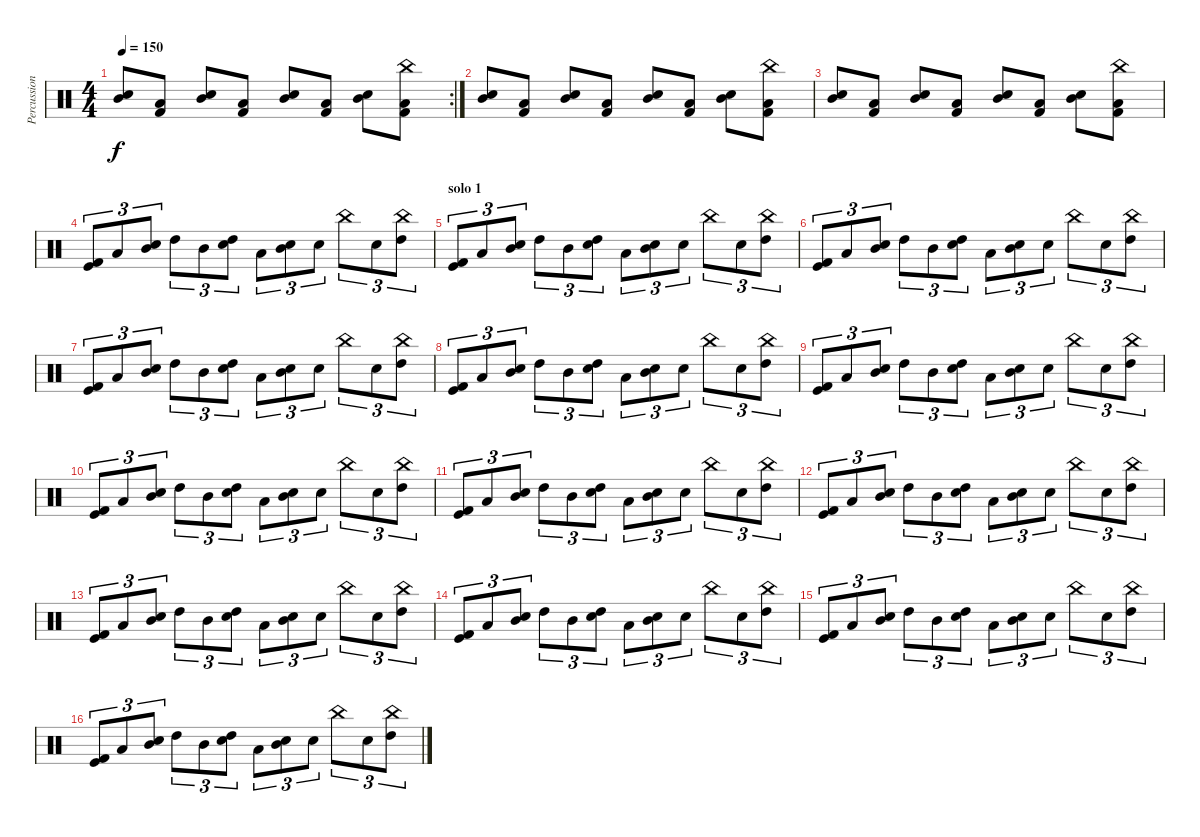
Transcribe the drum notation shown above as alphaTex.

\track ("Percussion" "Percussion") {instrument percussion}
\staff {score}
\articulation defaults
\rc 2
\ts (4 4)
\tempo 150
\clef neutral
\ks c
("Snare (hit) 2" "Mid Tom (hit)").8{dy f} ("Low Tom (hit)" "Kick (hit) 2").8 ("Snare (hit) 2" "Mid Tom (hit)").8 ("Low Tom (hit)" "Kick (hit) 2").8 ("Snare (hit) 2" "Mid Tom (hit)").8 ("Low Tom (hit)" "Kick (hit) 2").8 ("Snare (hit) 2" "Mid Tom (hit)").8 ("China (hit)" "Low Tom (hit)" "Kick (hit) 2").8 |
("Snare (hit) 2" "Mid Tom (hit)").8 ("Low Tom (hit)" "Kick (hit) 2").8 ("Snare (hit) 2" "Mid Tom (hit)").8 ("Low Tom (hit)" "Kick (hit) 2").8 ("Snare (hit) 2" "Mid Tom (hit)").8 ("Low Tom (hit)" "Kick (hit) 2").8 ("Snare (hit) 2" "Mid Tom (hit)").8 ("China (hit)" "Low Tom (hit)" "Kick (hit) 2").8 |
("Snare (hit) 2" "Mid Tom (hit)").8 ("Low Tom (hit)" "Kick (hit) 2").8 ("Snare (hit) 2" "Mid Tom (hit)").8 ("Low Tom (hit)" "Kick (hit) 2").8 ("Snare (hit) 2" "Mid Tom (hit)").8 ("Low Tom (hit)" "Kick (hit) 2").8 ("Snare (hit) 2" "Mid Tom (hit)").8 ("China (hit)" "Low Tom (hit)" "Kick (hit) 2").8 |
("Kick (hit) 2" "Kick (hit)").8{tu (3 2)} "Low Tom (hit)".8{tu (3 2)} ("Mid Tom (hit)" "Snare (hit) 2").8{tu (3 2)} "High Tom (hit)".8{tu (3 2)} "Mid Tom (hit)".8{tu (3 2)} ("High Tom (hit)" "Snare (hit) 2").8{tu (3 2)} "Low Tom (hit)".8{tu (3 2)} ("Mid Tom (hit)" "Snare (hit) 2").8{tu (3 2)} "Snare (hit) 2".8{tu (3 2)} "China (hit)".8{tu (3 2)} "Snare (hit) 2".8{tu (3 2)} ("High Tom (hit)" "China (hit)").8{tu (3 2)} |
\section ("" "solo 1")
("Kick (hit) 2" "Kick (hit)").8{tu (3 2)} "Low Tom (hit)".8{tu (3 2)} ("Mid Tom (hit)" "Snare (hit) 2").8{tu (3 2)} "High Tom (hit)".8{tu (3 2)} "Mid Tom (hit)".8{tu (3 2)} ("High Tom (hit)" "Snare (hit) 2").8{tu (3 2)} "Low Tom (hit)".8{tu (3 2)} ("Mid Tom (hit)" "Snare (hit) 2").8{tu (3 2)} "Snare (hit) 2".8{tu (3 2)} "China (hit)".8{tu (3 2)} "Snare (hit) 2".8{tu (3 2)} ("High Tom (hit)" "China (hit)").8{tu (3 2)} |
("Kick (hit) 2" "Kick (hit)").8{tu (3 2)} "Low Tom (hit)".8{tu (3 2)} ("Mid Tom (hit)" "Snare (hit) 2").8{tu (3 2)} "High Tom (hit)".8{tu (3 2)} "Mid Tom (hit)".8{tu (3 2)} ("High Tom (hit)" "Snare (hit) 2").8{tu (3 2)} "Low Tom (hit)".8{tu (3 2)} ("Mid Tom (hit)" "Snare (hit) 2").8{tu (3 2)} "Snare (hit) 2".8{tu (3 2)} "China (hit)".8{tu (3 2)} "Snare (hit) 2".8{tu (3 2)} ("High Tom (hit)" "China (hit)").8{tu (3 2)} |
("Kick (hit) 2" "Kick (hit)").8{tu (3 2)} "Low Tom (hit)".8{tu (3 2)} ("Mid Tom (hit)" "Snare (hit) 2").8{tu (3 2)} "High Tom (hit)".8{tu (3 2)} "Mid Tom (hit)".8{tu (3 2)} ("High Tom (hit)" "Snare (hit) 2").8{tu (3 2)} "Low Tom (hit)".8{tu (3 2)} ("Mid Tom (hit)" "Snare (hit) 2").8{tu (3 2)} "Snare (hit) 2".8{tu (3 2)} "China (hit)".8{tu (3 2)} "Snare (hit) 2".8{tu (3 2)} ("High Tom (hit)" "China (hit)").8{tu (3 2)} |
("Kick (hit) 2" "Kick (hit)").8{tu (3 2)} "Low Tom (hit)".8{tu (3 2)} ("Mid Tom (hit)" "Snare (hit) 2").8{tu (3 2)} "High Tom (hit)".8{tu (3 2)} "Mid Tom (hit)".8{tu (3 2)} ("High Tom (hit)" "Snare (hit) 2").8{tu (3 2)} "Low Tom (hit)".8{tu (3 2)} ("Mid Tom (hit)" "Snare (hit) 2").8{tu (3 2)} "Snare (hit) 2".8{tu (3 2)} "China (hit)".8{tu (3 2)} "Snare (hit) 2".8{tu (3 2)} ("High Tom (hit)" "China (hit)").8{tu (3 2)} |
("Kick (hit) 2" "Kick (hit)").8{tu (3 2)} "Low Tom (hit)".8{tu (3 2)} ("Mid Tom (hit)" "Snare (hit) 2").8{tu (3 2)} "High Tom (hit)".8{tu (3 2)} "Mid Tom (hit)".8{tu (3 2)} ("High Tom (hit)" "Snare (hit) 2").8{tu (3 2)} "Low Tom (hit)".8{tu (3 2)} ("Mid Tom (hit)" "Snare (hit) 2").8{tu (3 2)} "Snare (hit) 2".8{tu (3 2)} "China (hit)".8{tu (3 2)} "Snare (hit) 2".8{tu (3 2)} ("High Tom (hit)" "China (hit)").8{tu (3 2)} |
("Kick (hit) 2" "Kick (hit)").8{tu (3 2)} "Low Tom (hit)".8{tu (3 2)} ("Mid Tom (hit)" "Snare (hit) 2").8{tu (3 2)} "High Tom (hit)".8{tu (3 2)} "Mid Tom (hit)".8{tu (3 2)} ("High Tom (hit)" "Snare (hit) 2").8{tu (3 2)} "Low Tom (hit)".8{tu (3 2)} ("Mid Tom (hit)" "Snare (hit) 2").8{tu (3 2)} "Snare (hit) 2".8{tu (3 2)} "China (hit)".8{tu (3 2)} "Snare (hit) 2".8{tu (3 2)} ("High Tom (hit)" "China (hit)").8{tu (3 2)} |
("Kick (hit) 2" "Kick (hit)").8{tu (3 2)} "Low Tom (hit)".8{tu (3 2)} ("Mid Tom (hit)" "Snare (hit) 2").8{tu (3 2)} "High Tom (hit)".8{tu (3 2)} "Mid Tom (hit)".8{tu (3 2)} ("High Tom (hit)" "Snare (hit) 2").8{tu (3 2)} "Low Tom (hit)".8{tu (3 2)} ("Mid Tom (hit)" "Snare (hit) 2").8{tu (3 2)} "Snare (hit) 2".8{tu (3 2)} "China (hit)".8{tu (3 2)} "Snare (hit) 2".8{tu (3 2)} ("High Tom (hit)" "China (hit)").8{tu (3 2)} |
("Kick (hit) 2" "Kick (hit)").8{tu (3 2)} "Low Tom (hit)".8{tu (3 2)} ("Mid Tom (hit)" "Snare (hit) 2").8{tu (3 2)} "High Tom (hit)".8{tu (3 2)} "Mid Tom (hit)".8{tu (3 2)} ("High Tom (hit)" "Snare (hit) 2").8{tu (3 2)} "Low Tom (hit)".8{tu (3 2)} ("Mid Tom (hit)" "Snare (hit) 2").8{tu (3 2)} "Snare (hit) 2".8{tu (3 2)} "China (hit)".8{tu (3 2)} "Snare (hit) 2".8{tu (3 2)} ("High Tom (hit)" "China (hit)").8{tu (3 2)} |
("Kick (hit) 2" "Kick (hit)").8{tu (3 2)} "Low Tom (hit)".8{tu (3 2)} ("Mid Tom (hit)" "Snare (hit) 2").8{tu (3 2)} "High Tom (hit)".8{tu (3 2)} "Mid Tom (hit)".8{tu (3 2)} ("High Tom (hit)" "Snare (hit) 2").8{tu (3 2)} "Low Tom (hit)".8{tu (3 2)} ("Mid Tom (hit)" "Snare (hit) 2").8{tu (3 2)} "Snare (hit) 2".8{tu (3 2)} "China (hit)".8{tu (3 2)} "Snare (hit) 2".8{tu (3 2)} ("High Tom (hit)" "China (hit)").8{tu (3 2)} |
("Kick (hit) 2" "Kick (hit)").8{tu (3 2)} "Low Tom (hit)".8{tu (3 2)} ("Mid Tom (hit)" "Snare (hit) 2").8{tu (3 2)} "High Tom (hit)".8{tu (3 2)} "Mid Tom (hit)".8{tu (3 2)} ("High Tom (hit)" "Snare (hit) 2").8{tu (3 2)} "Low Tom (hit)".8{tu (3 2)} ("Mid Tom (hit)" "Snare (hit) 2").8{tu (3 2)} "Snare (hit) 2".8{tu (3 2)} "China (hit)".8{tu (3 2)} "Snare (hit) 2".8{tu (3 2)} ("High Tom (hit)" "China (hit)").8{tu (3 2)} |
("Kick (hit) 2" "Kick (hit)").8{tu (3 2)} "Low Tom (hit)".8{tu (3 2)} ("Mid Tom (hit)" "Snare (hit) 2").8{tu (3 2)} "High Tom (hit)".8{tu (3 2)} "Mid Tom (hit)".8{tu (3 2)} ("High Tom (hit)" "Snare (hit) 2").8{tu (3 2)} "Low Tom (hit)".8{tu (3 2)} ("Mid Tom (hit)" "Snare (hit) 2").8{tu (3 2)} "Snare (hit) 2".8{tu (3 2)} "China (hit)".8{tu (3 2)} "Snare (hit) 2".8{tu (3 2)} ("High Tom (hit)" "China (hit)").8{tu (3 2)} |
("Kick (hit) 2" "Kick (hit)").8{tu (3 2)} "Low Tom (hit)".8{tu (3 2)} ("Mid Tom (hit)" "Snare (hit) 2").8{tu (3 2)} "High Tom (hit)".8{tu (3 2)} "Mid Tom (hit)".8{tu (3 2)} ("High Tom (hit)" "Snare (hit) 2").8{tu (3 2)} "Low Tom (hit)".8{tu (3 2)} ("Mid Tom (hit)" "Snare (hit) 2").8{tu (3 2)} "Snare (hit) 2".8{tu (3 2)} "China (hit)".8{tu (3 2)} "Snare (hit) 2".8{tu (3 2)} ("High Tom (hit)" "China (hit)").8{tu (3 2)}
